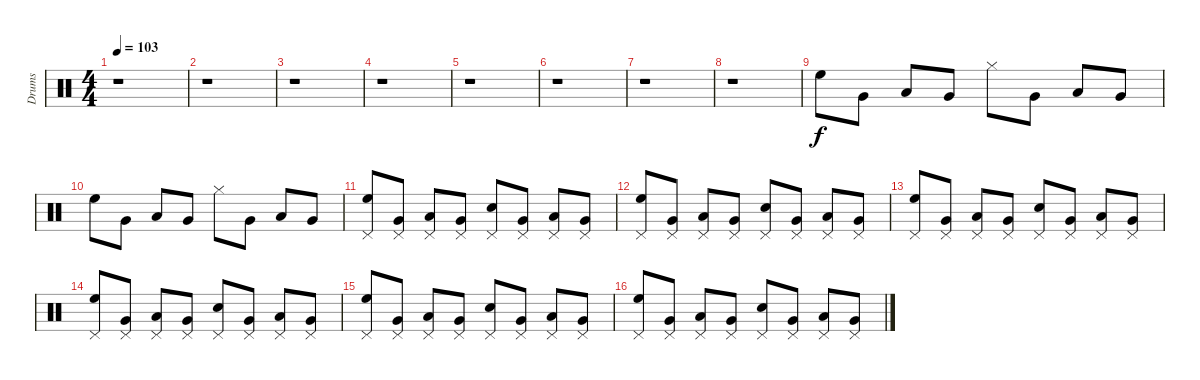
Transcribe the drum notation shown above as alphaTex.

\track ("Drums" "Drums") {instrument percussion}
\staff {score}
\articulation defaults
\ts (4 4)
\tempo 103
\clef neutral
\ks c
r.1{dy f} |
r.1 |
r.1 |
r.1 |
r.1 |
r.1 |
r.1 |
r.1 |
"High Floor Tom (hit)".8 "Very Low Tom (hit)".8 "Low Tom (hit)".8 "Very Low Tom (hit)".8 "Hi-Hat (closed)".8 "Very Low Tom (hit)".8 "Low Tom (hit)".8 "Very Low Tom (hit)".8 |
"High Floor Tom (hit)".8 "Very Low Tom (hit)".8 "Low Tom (hit)".8 "Very Low Tom (hit)".8 "Hi-Hat (closed)".8 "Very Low Tom (hit)".8 "Low Tom (hit)".8 "Very Low Tom (hit)".8 |
("Pedal Hi-Hat (hit)" "High Floor Tom (hit)").8 ("Very Low Tom (hit)" "Pedal Hi-Hat (hit)").8 ("Low Tom (hit)" "Pedal Hi-Hat (hit)").8 ("Very Low Tom (hit)" "Pedal Hi-Hat (hit)").8 ("Electric Snare (hit)" "Pedal Hi-Hat (hit)").8 ("Pedal Hi-Hat (hit)" "Very Low Tom (hit)").8 ("Pedal Hi-Hat (hit)" "Low Tom (hit)").8 ("Pedal Hi-Hat (hit)" "Very Low Tom (hit)").8 |
("Pedal Hi-Hat (hit)" "High Floor Tom (hit)").8 ("Very Low Tom (hit)" "Pedal Hi-Hat (hit)").8 ("Pedal Hi-Hat (hit)" "Low Tom (hit)").8 ("Very Low Tom (hit)" "Pedal Hi-Hat (hit)").8 ("Electric Snare (hit)" "Pedal Hi-Hat (hit)").8 ("Pedal Hi-Hat (hit)" "Very Low Tom (hit)").8 ("Low Tom (hit)" "Pedal Hi-Hat (hit)").8 ("Pedal Hi-Hat (hit)" "Very Low Tom (hit)").8 |
("Pedal Hi-Hat (hit)" "High Floor Tom (hit)").8 ("Pedal Hi-Hat (hit)" "Very Low Tom (hit)").8 ("Pedal Hi-Hat (hit)" "Low Tom (hit)").8 ("Pedal Hi-Hat (hit)" "Very Low Tom (hit)").8 ("Pedal Hi-Hat (hit)" "Electric Snare (hit)").8 ("Pedal Hi-Hat (hit)" "Very Low Tom (hit)").8 ("Pedal Hi-Hat (hit)" "Low Tom (hit)").8 ("Pedal Hi-Hat (hit)" "Very Low Tom (hit)").8 |
("Pedal Hi-Hat (hit)" "High Floor Tom (hit)").8 ("Pedal Hi-Hat (hit)" "Very Low Tom (hit)").8 ("Pedal Hi-Hat (hit)" "Low Tom (hit)").8 ("Pedal Hi-Hat (hit)" "Very Low Tom (hit)").8 ("Pedal Hi-Hat (hit)" "Electric Snare (hit)").8 ("Pedal Hi-Hat (hit)" "Very Low Tom (hit)").8 ("Pedal Hi-Hat (hit)" "Low Tom (hit)").8 ("Pedal Hi-Hat (hit)" "Very Low Tom (hit)").8 |
("Pedal Hi-Hat (hit)" "High Floor Tom (hit)").8 ("Pedal Hi-Hat (hit)" "Very Low Tom (hit)").8 ("Pedal Hi-Hat (hit)" "Low Tom (hit)").8 ("Pedal Hi-Hat (hit)" "Very Low Tom (hit)").8 ("Pedal Hi-Hat (hit)" "Electric Snare (hit)").8 ("Pedal Hi-Hat (hit)" "Very Low Tom (hit)").8 ("Pedal Hi-Hat (hit)" "Low Tom (hit)").8 ("Pedal Hi-Hat (hit)" "Very Low Tom (hit)").8 |
("Pedal Hi-Hat (hit)" "High Floor Tom (hit)").8 ("Pedal Hi-Hat (hit)" "Very Low Tom (hit)").8 ("Pedal Hi-Hat (hit)" "Low Tom (hit)").8 ("Pedal Hi-Hat (hit)" "Very Low Tom (hit)").8 ("Pedal Hi-Hat (hit)" "Electric Snare (hit)").8 ("Pedal Hi-Hat (hit)" "Very Low Tom (hit)").8 ("Pedal Hi-Hat (hit)" "Low Tom (hit)").8 ("Pedal Hi-Hat (hit)" "Very Low Tom (hit)").8
